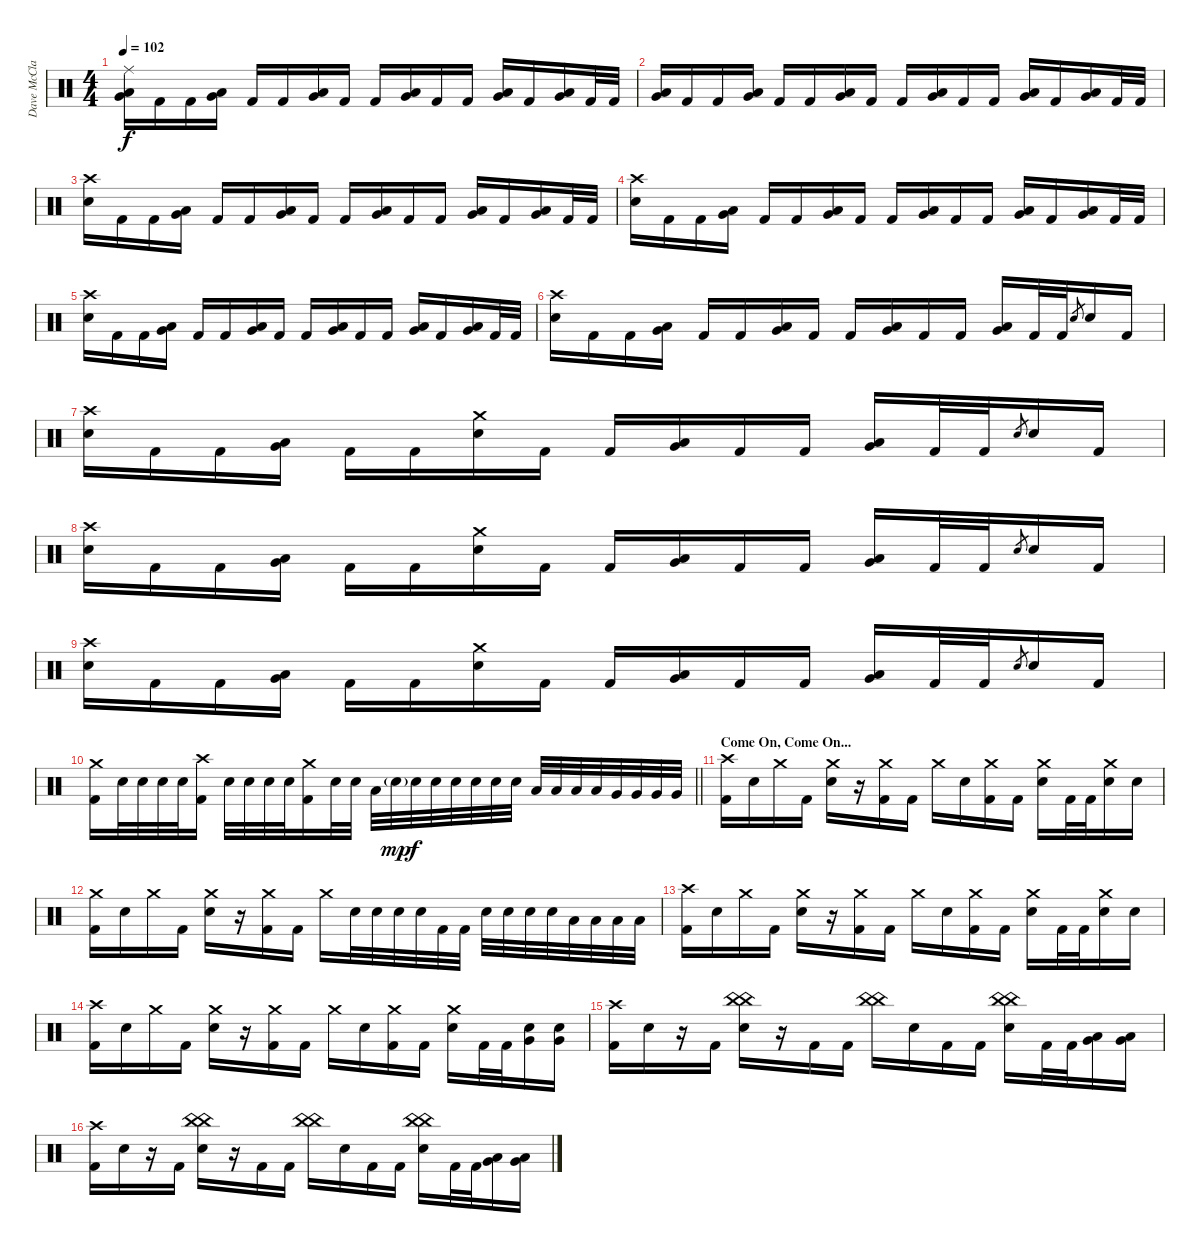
\track ("Dave McClain (drums)" "Dave McCla") {instrument percussion}
\staff {score}
\articulation defaults
\ts (4 4)
\tempo 102
\clef neutral
\ks c
("Ride (middle)" "Very Low Tom (hit)" "Low Floor Tom (hit)").16{dy f} "Kick (hit) 2".16 "Kick (hit) 2".16 ("Very Low Tom (hit)" "Low Floor Tom (hit)").16 "Kick (hit) 2".16 "Kick (hit) 2".16 ("Very Low Tom (hit)" "Low Floor Tom (hit)").16 "Kick (hit) 2".16 "Kick (hit) 2".16 ("Very Low Tom (hit)" "Low Floor Tom (hit)").16 "Kick (hit) 2".16 "Kick (hit) 2".16 ("Very Low Tom (hit)" "Low Floor Tom (hit)").16 "Kick (hit) 2".16 ("Very Low Tom (hit)" "Low Floor Tom (hit)").16 "Kick (hit) 2".32 "Kick (hit) 2".32 |
("Very Low Tom (hit)" "Low Floor Tom (hit)").16 "Kick (hit) 2".16 "Kick (hit) 2".16 ("Very Low Tom (hit)" "Low Floor Tom (hit)").16 "Kick (hit) 2".16 "Kick (hit) 2".16 ("Very Low Tom (hit)" "Low Floor Tom (hit)").16 "Kick (hit) 2".16 "Kick (hit) 2".16 ("Very Low Tom (hit)" "Low Floor Tom (hit)").16 "Kick (hit) 2".16 "Kick (hit) 2".16 ("Very Low Tom (hit)" "Low Floor Tom (hit)").16 "Kick (hit) 2".16 ("Very Low Tom (hit)" "Low Floor Tom (hit)").16 "Kick (hit) 2".32 "Kick (hit) 2".32 |
("Crash high (hit)" "Electric Snare (hit)").16 "Kick (hit) 2".16 "Kick (hit) 2".16 ("Very Low Tom (hit)" "Low Floor Tom (hit)").16 "Kick (hit) 2".16 "Kick (hit) 2".16 ("Very Low Tom (hit)" "Low Floor Tom (hit)").16 "Kick (hit) 2".16 "Kick (hit) 2".16 ("Very Low Tom (hit)" "Low Floor Tom (hit)").16 "Kick (hit) 2".16 "Kick (hit) 2".16 ("Very Low Tom (hit)" "Low Floor Tom (hit)").16 "Kick (hit) 2".16 ("Very Low Tom (hit)" "Low Floor Tom (hit)").16 "Kick (hit) 2".32 "Kick (hit) 2".32 |
("Crash high (hit)" "Electric Snare (hit)").16 "Kick (hit) 2".16 "Kick (hit) 2".16 ("Very Low Tom (hit)" "Low Floor Tom (hit)").16 "Kick (hit) 2".16 "Kick (hit) 2".16 ("Very Low Tom (hit)" "Low Floor Tom (hit)").16 "Kick (hit) 2".16 "Kick (hit) 2".16 ("Very Low Tom (hit)" "Low Floor Tom (hit)").16 "Kick (hit) 2".16 "Kick (hit) 2".16 ("Very Low Tom (hit)" "Low Floor Tom (hit)").16 "Kick (hit) 2".16 ("Very Low Tom (hit)" "Low Floor Tom (hit)").16 "Kick (hit) 2".32 "Kick (hit) 2".32 |
("Crash high (hit)" "Electric Snare (hit)").16 "Kick (hit) 2".16 "Kick (hit) 2".16 ("Very Low Tom (hit)" "Low Floor Tom (hit)").16 "Kick (hit) 2".16 "Kick (hit) 2".16 ("Very Low Tom (hit)" "Low Floor Tom (hit)").16 "Kick (hit) 2".16 "Kick (hit) 2".16 ("Very Low Tom (hit)" "Low Floor Tom (hit)").16 "Kick (hit) 2".16 "Kick (hit) 2".16 ("Very Low Tom (hit)" "Low Floor Tom (hit)").16 "Kick (hit) 2".16 ("Very Low Tom (hit)" "Low Floor Tom (hit)").16 "Kick (hit) 2".32 "Kick (hit) 2".32 |
("Crash high (hit)" "Electric Snare (hit)").16 "Kick (hit) 2".16 "Kick (hit) 2".16 ("Very Low Tom (hit)" "Low Floor Tom (hit)").16 "Kick (hit) 2".16 "Kick (hit) 2".16 ("Very Low Tom (hit)" "Low Floor Tom (hit)").16 "Kick (hit) 2".16 "Kick (hit) 2".16 ("Very Low Tom (hit)" "Low Floor Tom (hit)").16 "Kick (hit) 2".16 "Kick (hit) 2".16 ("Very Low Tom (hit)" "Low Floor Tom (hit)").16 "Kick (hit) 2".32 "Kick (hit) 2".32 "Electric Snare (hit)".8{gr} "Electric Snare (hit)".16 "Kick (hit) 2".16 |
("Crash high (hit)" "Electric Snare (hit)").16 "Kick (hit) 2".16 "Kick (hit) 2".16 ("Very Low Tom (hit)" "Low Floor Tom (hit)").16 "Kick (hit) 2".16 "Kick (hit) 2".16 ("Crash medium (hit)" "Electric Snare (hit)").16 "Kick (hit) 2".16 "Kick (hit) 2".16 ("Very Low Tom (hit)" "Low Floor Tom (hit)").16 "Kick (hit) 2".16 "Kick (hit) 2".16 ("Very Low Tom (hit)" "Low Floor Tom (hit)").16 "Kick (hit) 2".32 "Kick (hit) 2".32 "Electric Snare (hit)".8{gr} "Electric Snare (hit)".16 "Kick (hit) 2".16 |
("Crash high (hit)" "Electric Snare (hit)").16 "Kick (hit) 2".16 "Kick (hit) 2".16 ("Very Low Tom (hit)" "Low Floor Tom (hit)").16 "Kick (hit) 2".16 "Kick (hit) 2".16 ("Crash medium (hit)" "Electric Snare (hit)").16 "Kick (hit) 2".16 "Kick (hit) 2".16 ("Very Low Tom (hit)" "Low Floor Tom (hit)").16 "Kick (hit) 2".16 "Kick (hit) 2".16 ("Very Low Tom (hit)" "Low Floor Tom (hit)").16 "Kick (hit) 2".32 "Kick (hit) 2".32 "Electric Snare (hit)".8{gr} "Electric Snare (hit)".16 "Kick (hit) 2".16 |
("Crash high (hit)" "Electric Snare (hit)").16 "Kick (hit) 2".16 "Kick (hit) 2".16 ("Very Low Tom (hit)" "Low Floor Tom (hit)").16 "Kick (hit) 2".16 "Kick (hit) 2".16 ("Crash medium (hit)" "Electric Snare (hit)").16 "Kick (hit) 2".16 "Kick (hit) 2".16 ("Very Low Tom (hit)" "Low Floor Tom (hit)").16 "Kick (hit) 2".16 "Kick (hit) 2".16 ("Very Low Tom (hit)" "Low Floor Tom (hit)").16 "Kick (hit) 2".32 "Kick (hit) 2".32 "Electric Snare (hit)".8{gr} "Electric Snare (hit)".16 "Kick (hit) 2".16 |
\barLineRight lightlight
("Crash medium (hit)" "Kick (hit) 2").16 "Electric Snare (hit)".32 "Electric Snare (hit)".32 "Electric Snare (hit)".32 "Electric Snare (hit)".32 ("Crash high (hit)" "Kick (hit) 2").16 "Electric Snare (hit)".32 "Electric Snare (hit)".32 "Electric Snare (hit)".32 "Electric Snare (hit)".32 ("Crash medium (hit)" "Kick (hit) 2").16 "Electric Snare (hit)".32 "Electric Snare (hit)".32 "Low Tom (hit)".32 "Electric Snare (hit)"{g}.32{dy mp} "Electric Snare (hit)".32{dy f} "Electric Snare (hit)".32 "Electric Snare (hit)".32 "Electric Snare (hit)".32 "Electric Snare (hit)".32 "Electric Snare (hit)".32 "Low Tom (hit)".32 "Low Tom (hit)".32 "Low Tom (hit)".32 "Low Tom (hit)".32 "Very Low Tom (hit)".32 "Very Low Tom (hit)".32 "Very Low Tom (hit)".32 "Very Low Tom (hit)".32 |
\section ("" "Come On, Come On...")
("Crash high (hit)" "Kick (hit) 2").16 "Electric Snare (hit)".16 "Crash medium (hit)".16 "Kick (hit) 2".16 ("Crash medium (hit)" "Electric Snare (hit)").16 r.16 ("Crash medium (hit)" "Kick (hit) 2").16 "Kick (hit) 2".16 "Crash medium (hit)".16 "Electric Snare (hit)".16 ("Crash medium (hit)" "Kick (hit) 2").16 "Kick (hit) 2".16 ("Crash medium (hit)" "Electric Snare (hit)").16 "Kick (hit) 2".32 "Kick (hit) 2".32 ("Crash medium (hit)" "Electric Snare (hit)").16 "Electric Snare (hit)".16 |
("Crash medium (hit)" "Kick (hit) 2").16 "Electric Snare (hit)".16 "Crash medium (hit)".16 "Kick (hit) 2".16 ("Crash medium (hit)" "Electric Snare (hit)").16 r.16 ("Crash medium (hit)" "Kick (hit) 2").16 "Kick (hit) 2".16 "Crash medium (hit)".16 "Electric Snare (hit)".32 "Electric Snare (hit)".32 "Electric Snare (hit)".32 "Electric Snare (hit)".32 "Kick (hit) 2".32 "Kick (hit) 2".32 "Electric Snare (hit)".32 "Electric Snare (hit)".32 "Electric Snare (hit)".32 "Electric Snare (hit)".32 "Low Tom (hit)".32 "Low Tom (hit)".32 "Low Tom (hit)".32 "Low Tom (hit)".32 |
("Crash high (hit)" "Kick (hit) 2").16 "Electric Snare (hit)".16 "Crash medium (hit)".16 "Kick (hit) 2".16 ("Crash medium (hit)" "Electric Snare (hit)").16 r.16 ("Crash medium (hit)" "Kick (hit) 2").16 "Kick (hit) 2".16 "Crash medium (hit)".16 "Electric Snare (hit)".16 ("Crash medium (hit)" "Kick (hit) 2").16 "Kick (hit) 2".16 ("Crash medium (hit)" "Electric Snare (hit)").16 "Kick (hit) 2".32 "Kick (hit) 2".32 ("Crash medium (hit)" "Electric Snare (hit)").16 "Electric Snare (hit)".16 |
("Crash high (hit)" "Kick (hit) 2").16 "Electric Snare (hit)".16 "Crash medium (hit)".16 "Kick (hit) 2".16 ("Crash medium (hit)" "Electric Snare (hit)").16 r.16 ("Crash medium (hit)" "Kick (hit) 2").16 "Kick (hit) 2".16 "Crash medium (hit)".16 "Electric Snare (hit)".16 ("Crash medium (hit)" "Kick (hit) 2").16 "Kick (hit) 2".16 ("Crash medium (hit)" "Electric Snare (hit)").16 "Kick (hit) 2".32 "Kick (hit) 2".32 ("Electric Snare (hit)" "Very Low Tom (hit)").16 ("Electric Snare (hit)" "Very Low Tom (hit)").16 |
("Crash high (hit)" "Kick (hit) 2").16 "Electric Snare (hit)".16 r.16 "Kick (hit) 2".16 ("China (hit)" "China (hit)" "Electric Snare (hit)").16 r.16 "Kick (hit) 2".16 "Kick (hit) 2".16 ("China (hit)" "China (hit)").16 "Electric Snare (hit)".16 "Kick (hit) 2".16 "Kick (hit) 2".16 ("China (hit)" "China (hit)" "Electric Snare (hit)").16 "Kick (hit) 2".32 "Kick (hit) 2".32 ("Very Low Tom (hit)" "Low Floor Tom (hit)").16 ("Very Low Tom (hit)" "Low Floor Tom (hit)").16 |
("Crash high (hit)" "Kick (hit) 2").16 "Electric Snare (hit)".16 r.16 "Kick (hit) 2".16 ("China (hit)" "China (hit)" "Electric Snare (hit)").16 r.16 "Kick (hit) 2".16 "Kick (hit) 2".16 ("China (hit)" "China (hit)").16 "Electric Snare (hit)".16 "Kick (hit) 2".16 "Kick (hit) 2".16 ("China (hit)" "China (hit)" "Electric Snare (hit)").16 "Kick (hit) 2".32 "Kick (hit) 2".32 ("Very Low Tom (hit)" "Low Floor Tom (hit)").16 ("Very Low Tom (hit)" "Low Floor Tom (hit)").16
